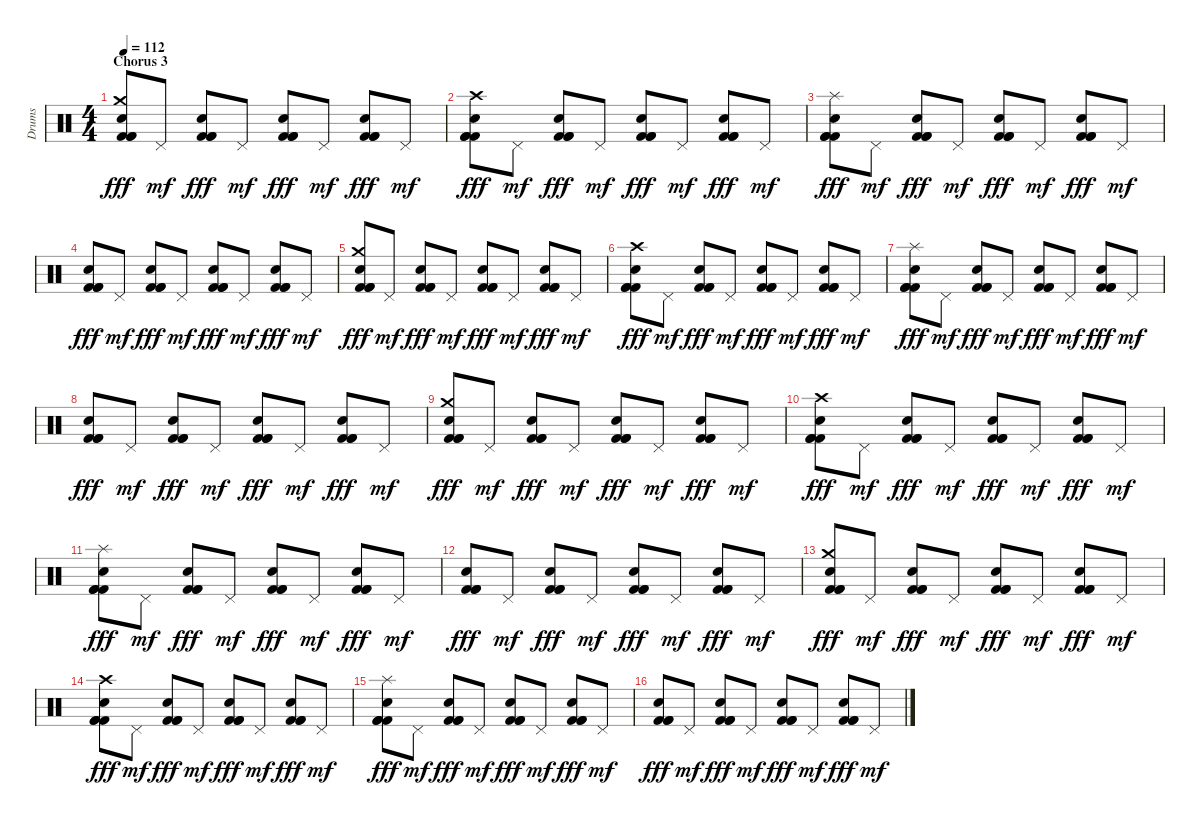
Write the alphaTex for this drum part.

\track ("Drums" "Drums") {instrument percussion}
\staff {score}
\articulation defaults
\ts (4 4)
\section ("" "Chorus 3")
\tempo 112
\clef neutral
\ks c
("Electric Snare (hit)" "Crash medium (hit)" "Kick (hit) 2" "Kick (hit) 2" "Kick (hit) 2").8{dy fff} "Pedal Hi-Hat (hit)".8{dy mf} ("Electric Snare (hit)" "Kick (hit) 2" "Kick (hit) 2" "Kick (hit) 2").8{dy fff} "Pedal Hi-Hat (hit)".8{dy mf} ("Electric Snare (hit)" "Kick (hit) 2" "Kick (hit) 2" "Kick (hit) 2").8{dy fff} "Pedal Hi-Hat (hit)".8{dy mf} ("Electric Snare (hit)" "Kick (hit) 2" "Kick (hit) 2" "Kick (hit) 2").8{dy fff} "Pedal Hi-Hat (hit)".8{dy mf} |
("Electric Snare (hit)" "Crash high (hit)" "Kick (hit) 2" "Kick (hit) 2" "Kick (hit) 2").8{dy fff} "Pedal Hi-Hat (hit)".8{dy mf} ("Electric Snare (hit)" "Kick (hit) 2" "Kick (hit) 2" "Kick (hit) 2").8{dy fff} "Pedal Hi-Hat (hit)".8{dy mf} ("Electric Snare (hit)" "Kick (hit) 2" "Kick (hit) 2" "Kick (hit) 2").8{dy fff} "Pedal Hi-Hat (hit)".8{dy mf} ("Electric Snare (hit)" "Kick (hit) 2" "Kick (hit) 2" "Kick (hit) 2").8{dy fff} "Pedal Hi-Hat (hit)".8{dy mf} |
("Electric Snare (hit)" "Splash (hit)" "Kick (hit) 2" "Kick (hit) 2" "Kick (hit) 2").8{dy fff} "Pedal Hi-Hat (hit)".8{dy mf} ("Electric Snare (hit)" "Kick (hit) 2" "Kick (hit) 2" "Kick (hit) 2").8{dy fff} "Pedal Hi-Hat (hit)".8{dy mf} ("Electric Snare (hit)" "Kick (hit) 2" "Kick (hit) 2" "Kick (hit) 2").8{dy fff} "Pedal Hi-Hat (hit)".8{dy mf} ("Electric Snare (hit)" "Kick (hit) 2" "Kick (hit) 2" "Kick (hit) 2").8{dy fff} "Pedal Hi-Hat (hit)".8{dy mf} |
("Electric Snare (hit)" "Kick (hit) 2" "Kick (hit) 2" "Kick (hit) 2").8{dy fff} "Pedal Hi-Hat (hit)".8{dy mf} ("Electric Snare (hit)" "Kick (hit) 2" "Kick (hit) 2" "Kick (hit) 2").8{dy fff} "Pedal Hi-Hat (hit)".8{dy mf} ("Electric Snare (hit)" "Kick (hit) 2" "Kick (hit) 2" "Kick (hit) 2").8{dy fff} "Pedal Hi-Hat (hit)".8{dy mf} ("Electric Snare (hit)" "Kick (hit) 2" "Kick (hit) 2" "Kick (hit) 2").8{dy fff} "Pedal Hi-Hat (hit)".8{dy mf} |
("Electric Snare (hit)" "Crash medium (hit)" "Kick (hit) 2" "Kick (hit) 2" "Kick (hit) 2").8{dy fff} "Pedal Hi-Hat (hit)".8{dy mf} ("Electric Snare (hit)" "Kick (hit) 2" "Kick (hit) 2" "Kick (hit) 2").8{dy fff} "Pedal Hi-Hat (hit)".8{dy mf} ("Electric Snare (hit)" "Kick (hit) 2" "Kick (hit) 2" "Kick (hit) 2").8{dy fff} "Pedal Hi-Hat (hit)".8{dy mf} ("Electric Snare (hit)" "Kick (hit) 2" "Kick (hit) 2" "Kick (hit) 2").8{dy fff} "Pedal Hi-Hat (hit)".8{dy mf} |
("Electric Snare (hit)" "Crash high (hit)" "Kick (hit) 2" "Kick (hit) 2" "Kick (hit) 2").8{dy fff} "Pedal Hi-Hat (hit)".8{dy mf} ("Electric Snare (hit)" "Kick (hit) 2" "Kick (hit) 2" "Kick (hit) 2").8{dy fff} "Pedal Hi-Hat (hit)".8{dy mf} ("Electric Snare (hit)" "Kick (hit) 2" "Kick (hit) 2" "Kick (hit) 2").8{dy fff} "Pedal Hi-Hat (hit)".8{dy mf} ("Electric Snare (hit)" "Kick (hit) 2" "Kick (hit) 2" "Kick (hit) 2").8{dy fff} "Pedal Hi-Hat (hit)".8{dy mf} |
("Electric Snare (hit)" "Splash (hit)" "Kick (hit) 2" "Kick (hit) 2" "Kick (hit) 2").8{dy fff} "Pedal Hi-Hat (hit)".8{dy mf} ("Electric Snare (hit)" "Kick (hit) 2" "Kick (hit) 2" "Kick (hit) 2").8{dy fff} "Pedal Hi-Hat (hit)".8{dy mf} ("Electric Snare (hit)" "Kick (hit) 2" "Kick (hit) 2" "Kick (hit) 2").8{dy fff} "Pedal Hi-Hat (hit)".8{dy mf} ("Electric Snare (hit)" "Kick (hit) 2" "Kick (hit) 2" "Kick (hit) 2").8{dy fff} "Pedal Hi-Hat (hit)".8{dy mf} |
("Electric Snare (hit)" "Kick (hit) 2" "Kick (hit) 2" "Kick (hit) 2").8{dy fff} "Pedal Hi-Hat (hit)".8{dy mf} ("Electric Snare (hit)" "Kick (hit) 2" "Kick (hit) 2" "Kick (hit) 2").8{dy fff} "Pedal Hi-Hat (hit)".8{dy mf} ("Electric Snare (hit)" "Kick (hit) 2" "Kick (hit) 2" "Kick (hit) 2").8{dy fff} "Pedal Hi-Hat (hit)".8{dy mf} ("Electric Snare (hit)" "Kick (hit) 2" "Kick (hit) 2" "Kick (hit) 2").8{dy fff} "Pedal Hi-Hat (hit)".8{dy mf} |
("Electric Snare (hit)" "Crash medium (hit)" "Kick (hit) 2" "Kick (hit) 2" "Kick (hit) 2").8{dy fff} "Pedal Hi-Hat (hit)".8{dy mf} ("Electric Snare (hit)" "Kick (hit) 2" "Kick (hit) 2" "Kick (hit) 2").8{dy fff} "Pedal Hi-Hat (hit)".8{dy mf} ("Electric Snare (hit)" "Kick (hit) 2" "Kick (hit) 2" "Kick (hit) 2").8{dy fff} "Pedal Hi-Hat (hit)".8{dy mf} ("Electric Snare (hit)" "Kick (hit) 2" "Kick (hit) 2" "Kick (hit) 2").8{dy fff} "Pedal Hi-Hat (hit)".8{dy mf} |
("Electric Snare (hit)" "Crash high (hit)" "Kick (hit) 2" "Kick (hit) 2" "Kick (hit) 2").8{dy fff} "Pedal Hi-Hat (hit)".8{dy mf} ("Electric Snare (hit)" "Kick (hit) 2" "Kick (hit) 2" "Kick (hit) 2").8{dy fff} "Pedal Hi-Hat (hit)".8{dy mf} ("Electric Snare (hit)" "Kick (hit) 2" "Kick (hit) 2" "Kick (hit) 2").8{dy fff} "Pedal Hi-Hat (hit)".8{dy mf} ("Electric Snare (hit)" "Kick (hit) 2" "Kick (hit) 2" "Kick (hit) 2").8{dy fff} "Pedal Hi-Hat (hit)".8{dy mf} |
("Electric Snare (hit)" "Splash (hit)" "Kick (hit) 2" "Kick (hit) 2" "Kick (hit) 2").8{dy fff} "Pedal Hi-Hat (hit)".8{dy mf} ("Electric Snare (hit)" "Kick (hit) 2" "Kick (hit) 2" "Kick (hit) 2").8{dy fff} "Pedal Hi-Hat (hit)".8{dy mf} ("Electric Snare (hit)" "Kick (hit) 2" "Kick (hit) 2" "Kick (hit) 2").8{dy fff} "Pedal Hi-Hat (hit)".8{dy mf} ("Electric Snare (hit)" "Kick (hit) 2" "Kick (hit) 2" "Kick (hit) 2").8{dy fff} "Pedal Hi-Hat (hit)".8{dy mf} |
("Electric Snare (hit)" "Kick (hit) 2" "Kick (hit) 2" "Kick (hit) 2").8{dy fff} "Pedal Hi-Hat (hit)".8{dy mf} ("Electric Snare (hit)" "Kick (hit) 2" "Kick (hit) 2" "Kick (hit) 2").8{dy fff} "Pedal Hi-Hat (hit)".8{dy mf} ("Electric Snare (hit)" "Kick (hit) 2" "Kick (hit) 2" "Kick (hit) 2").8{dy fff} "Pedal Hi-Hat (hit)".8{dy mf} ("Electric Snare (hit)" "Kick (hit) 2" "Kick (hit) 2" "Kick (hit) 2").8{dy fff} "Pedal Hi-Hat (hit)".8{dy mf} |
("Electric Snare (hit)" "Crash medium (hit)" "Kick (hit) 2" "Kick (hit) 2" "Kick (hit) 2").8{dy fff} "Pedal Hi-Hat (hit)".8{dy mf} ("Electric Snare (hit)" "Kick (hit) 2" "Kick (hit) 2" "Kick (hit) 2").8{dy fff} "Pedal Hi-Hat (hit)".8{dy mf} ("Electric Snare (hit)" "Kick (hit) 2" "Kick (hit) 2" "Kick (hit) 2").8{dy fff} "Pedal Hi-Hat (hit)".8{dy mf} ("Electric Snare (hit)" "Kick (hit) 2" "Kick (hit) 2" "Kick (hit) 2").8{dy fff} "Pedal Hi-Hat (hit)".8{dy mf} |
("Electric Snare (hit)" "Crash high (hit)" "Kick (hit) 2" "Kick (hit) 2" "Kick (hit) 2").8{dy fff} "Pedal Hi-Hat (hit)".8{dy mf} ("Electric Snare (hit)" "Kick (hit) 2" "Kick (hit) 2" "Kick (hit) 2").8{dy fff} "Pedal Hi-Hat (hit)".8{dy mf} ("Electric Snare (hit)" "Kick (hit) 2" "Kick (hit) 2" "Kick (hit) 2").8{dy fff} "Pedal Hi-Hat (hit)".8{dy mf} ("Electric Snare (hit)" "Kick (hit) 2" "Kick (hit) 2" "Kick (hit) 2").8{dy fff} "Pedal Hi-Hat (hit)".8{dy mf} |
("Electric Snare (hit)" "Splash (hit)" "Kick (hit) 2" "Kick (hit) 2" "Kick (hit) 2").8{dy fff} "Pedal Hi-Hat (hit)".8{dy mf} ("Electric Snare (hit)" "Kick (hit) 2" "Kick (hit) 2" "Kick (hit) 2").8{dy fff} "Pedal Hi-Hat (hit)".8{dy mf} ("Electric Snare (hit)" "Kick (hit) 2" "Kick (hit) 2" "Kick (hit) 2").8{dy fff} "Pedal Hi-Hat (hit)".8{dy mf} ("Electric Snare (hit)" "Kick (hit) 2" "Kick (hit) 2" "Kick (hit) 2").8{dy fff} "Pedal Hi-Hat (hit)".8{dy mf} |
("Electric Snare (hit)" "Kick (hit) 2" "Kick (hit) 2" "Kick (hit) 2").8{dy fff} "Pedal Hi-Hat (hit)".8{dy mf} ("Electric Snare (hit)" "Kick (hit) 2" "Kick (hit) 2" "Kick (hit) 2").8{dy fff} "Pedal Hi-Hat (hit)".8{dy mf} ("Electric Snare (hit)" "Kick (hit) 2" "Kick (hit) 2" "Kick (hit) 2").8{dy fff} "Pedal Hi-Hat (hit)".8{dy mf} ("Electric Snare (hit)" "Kick (hit) 2" "Kick (hit) 2" "Kick (hit) 2").8{dy fff} "Pedal Hi-Hat (hit)".8{dy mf}
